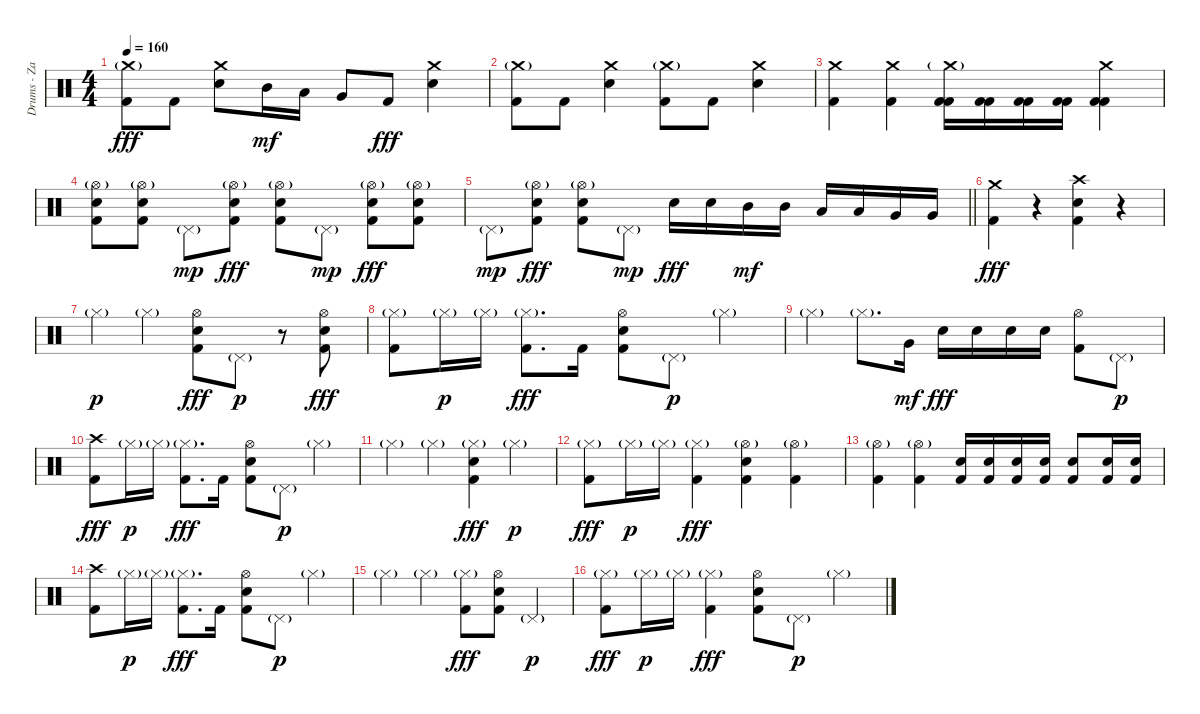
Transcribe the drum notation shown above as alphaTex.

\track ("Drums - Zac Farro" "Drums - Za") {instrument percussion}
\staff {score}
\articulation defaults
\ts (4 4)
\tempo 160
\clef neutral
\ks c
("Crash medium (hit)"{g} "Kick (hit) 2").8{dy fff} "Kick (hit) 2".8 ("Crash medium (hit)" "Electric Snare (hit)").8 "Mid Tom (hit)".16{dy mf} "Low Tom (hit)".16 "Very Low Tom (hit)".8 "Kick (hit) 2".8{dy fff} ("Crash medium (hit)" "Electric Snare (hit)").4 |
("Crash medium (hit)"{g} "Kick (hit) 2").8 "Kick (hit) 2".8 ("Crash medium (hit)" "Electric Snare (hit)").4 ("Crash medium (hit)"{g} "Kick (hit) 2").8 "Kick (hit) 2".8 ("Crash medium (hit)" "Electric Snare (hit)").4 |
("Crash medium (hit)" "Kick (hit) 2").4 ("Crash medium (hit)" "Kick (hit) 2").4 ("Crash medium (hit)"{g} "Kick (hit) 2" "Kick (hit) 2").16 ("Kick (hit) 2" "Kick (hit) 2").16 ("Kick (hit) 2" "Kick (hit) 2").16 ("Kick (hit) 2" "Kick (hit) 2").16 ("Crash medium (hit)" "Kick (hit) 2" "Kick (hit) 2").4 |
("Hi-Hat (open)"{g} "Electric Snare (hit)" "Kick (hit) 2").8 ("Hi-Hat (open)"{g} "Electric Snare (hit)" "Kick (hit) 2").8 "Pedal Hi-Hat (hit)"{g}.8{dy mp} ("Hi-Hat (open)"{g} "Electric Snare (hit)" "Kick (hit) 2").8{dy fff} ("Hi-Hat (open)"{g} "Electric Snare (hit)" "Kick (hit) 2").8 "Pedal Hi-Hat (hit)"{g}.8{dy mp} ("Hi-Hat (open)"{g} "Electric Snare (hit)" "Kick (hit) 2").8{dy fff} ("Hi-Hat (open)"{g} "Electric Snare (hit)" "Kick (hit) 2").8 |
\barLineRight lightlight "Pedal Hi-Hat (hit)"{g}.8{dy mp}
("Hi-Hat (open)"{g} "Electric Snare (hit)" "Kick (hit) 2").8{dy fff} ("Hi-Hat (open)"{g} "Electric Snare (hit)" "Kick (hit) 2").8 "Pedal Hi-Hat (hit)"{g}.8{dy mp} "Electric Snare (hit)".16{dy fff} "Electric Snare (hit)".16 "Mid Tom (hit)".16{dy mf} "Mid Tom (hit)".16 "Low Tom (hit)".16 "Low Tom (hit)".16 "Very Low Tom (hit)".16 "Very Low Tom (hit)".16 |
("Crash medium (hit)" "Kick (hit) 2").4{dy fff} r.4 ("Crash high (hit)" "Electric Snare (hit)" "Kick (hit) 2").4 r.4 |
"Hi-Hat (closed)"{g}.4{dy p} "Hi-Hat (closed)"{g}.4 ("Hi-Hat (open)" "Electric Snare (hit)" "Kick (hit) 2").8{dy fff} "Pedal Hi-Hat (hit)"{g}.8{dy p} r.8 ("Hi-Hat (open)" "Electric Snare (hit)" "Kick (hit) 2").8{dy fff} |
("Hi-Hat (closed)"{g} "Kick (hit) 2").8 "Hi-Hat (closed)"{g}.16{dy p} "Hi-Hat (closed)"{g}.16 ("Hi-Hat (closed)"{g} "Kick (hit) 2").8{d dy fff} "Kick (hit) 2".16 ("Hi-Hat (open)" "Electric Snare (hit)" "Kick (hit) 2").8 "Pedal Hi-Hat (hit)"{g}.8{dy p} "Hi-Hat (closed)"{g}.4 |
"Hi-Hat (closed)"{g}.4 "Hi-Hat (closed)"{g}.8{d} "Very Low Tom (hit)".16{dy mf balance 16} "Electric Snare (hit)".16{dy fff balance 8} "Electric Snare (hit)".16 "Electric Snare (hit)".16 "Electric Snare (hit)".16 ("Hi-Hat (open)" "Kick (hit) 2").8 "Pedal Hi-Hat (hit)"{g}.8{dy p} |
("Crash high (hit)" "Kick (hit) 2").8{dy fff} "Hi-Hat (closed)"{g}.16{dy p} "Hi-Hat (closed)"{g}.16 ("Hi-Hat (closed)"{g} "Kick (hit) 2").8{d dy fff} "Kick (hit) 2".16 ("Hi-Hat (open)" "Electric Snare (hit)" "Kick (hit) 2").8 "Pedal Hi-Hat (hit)"{g}.8{dy p} "Hi-Hat (closed)"{g}.4 |
"Hi-Hat (closed)"{g}.4 "Hi-Hat (closed)"{g}.4 ("Hi-Hat (closed)"{g} "Electric Snare (hit)" "Kick (hit) 2").4{dy fff} "Hi-Hat (closed)"{g}.4{dy p} |
("Hi-Hat (closed)"{g} "Kick (hit) 2").8{dy fff} "Hi-Hat (closed)"{g}.16{dy p} "Hi-Hat (closed)"{g}.16 ("Hi-Hat (closed)"{g} "Kick (hit) 2").4{dy fff} ("Hi-Hat (open)"{g} "Electric Snare (hit)" "Kick (hit) 2").4 ("Hi-Hat (open)"{g} "Kick (hit) 2").4 |
("Hi-Hat (open)"{g} "Kick (hit) 2").4 ("Hi-Hat (open)"{g} "Kick (hit) 2").4 ("Electric Snare (hit)" "Kick (hit) 2").16 ("Electric Snare (hit)" "Kick (hit) 2").16 ("Electric Snare (hit)" "Kick (hit) 2").16 ("Electric Snare (hit)" "Kick (hit) 2").16 ("Electric Snare (hit)" "Kick (hit) 2").8 ("Electric Snare (hit)" "Kick (hit) 2").16 ("Electric Snare (hit)" "Kick (hit) 2").16 |
("Crash high (hit)" "Kick (hit) 2").8 "Hi-Hat (closed)"{g}.16{dy p} "Hi-Hat (closed)"{g}.16 ("Hi-Hat (closed)"{g} "Kick (hit) 2").8{d dy fff} "Kick (hit) 2".16 ("Hi-Hat (open)" "Electric Snare (hit)" "Kick (hit) 2").8 "Pedal Hi-Hat (hit)"{g}.8{dy p} "Hi-Hat (closed)"{g}.4 |
"Hi-Hat (closed)"{g}.4 "Hi-Hat (closed)"{g}.4 ("Hi-Hat (closed)"{g} "Kick (hit) 2").8{dy fff} ("Hi-Hat (open)" "Electric Snare (hit)" "Kick (hit) 2").8 "Pedal Hi-Hat (hit)"{g}.4{dy p} |
("Hi-Hat (closed)"{g} "Kick (hit) 2").8{dy fff} "Hi-Hat (closed)"{g}.16{dy p} "Hi-Hat (closed)"{g}.16 ("Hi-Hat (closed)"{g} "Kick (hit) 2").4{dy fff} ("Hi-Hat (open)" "Electric Snare (hit)" "Kick (hit) 2").8 "Pedal Hi-Hat (hit)"{g}.8{dy p} "Hi-Hat (closed)"{g}.4
